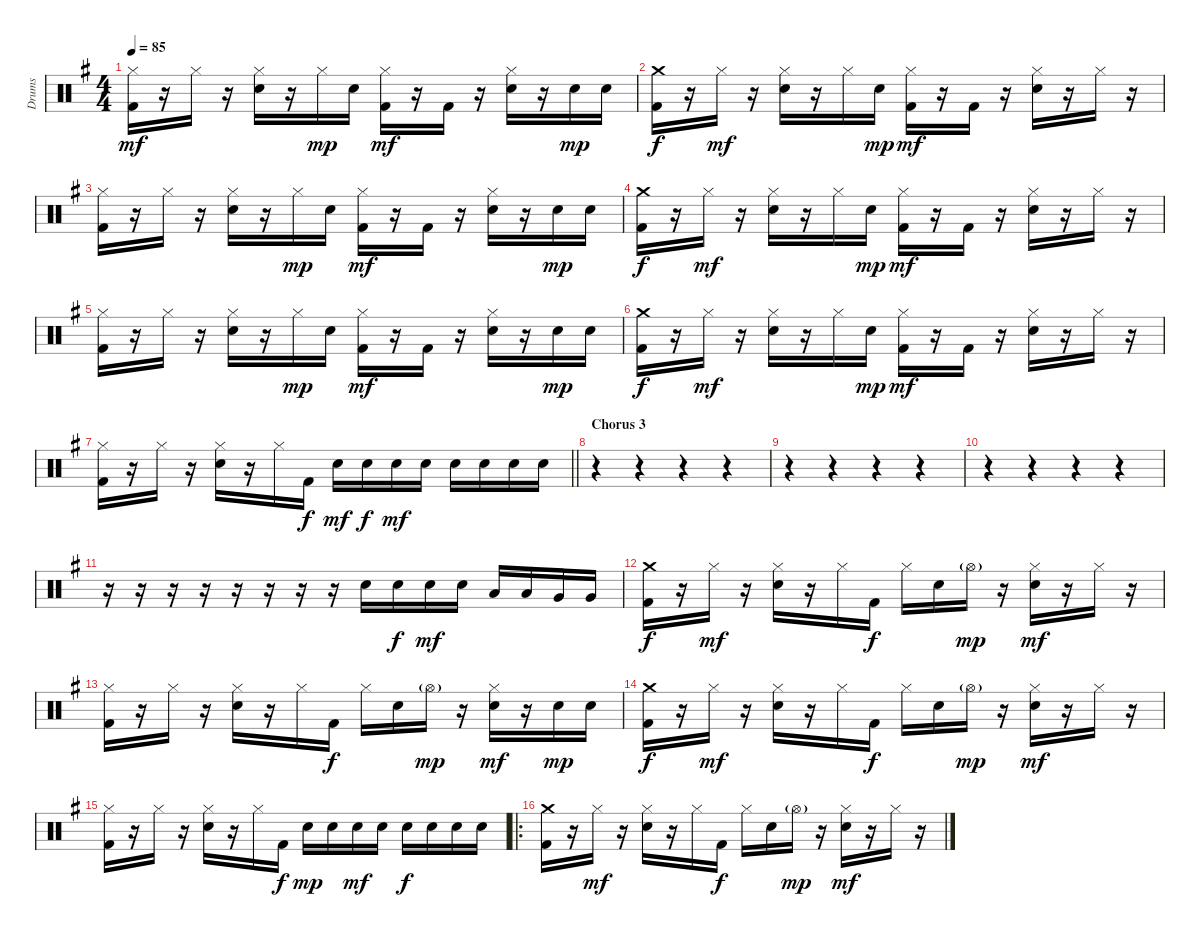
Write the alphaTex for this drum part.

\track ("Drums" "Drums") {instrument percussion}
\staff {score}
\articulation defaults
\ts (4 4)
\tempo 85
\clef neutral
\ks g
("Hi-Hat (closed)" "Kick (hit) 2").16{dy mf} r.16 "Hi-Hat (closed)".16 r.16 ("Hi-Hat (closed)" "Snare (hit) 2").16 r.16 "Hi-Hat (closed)".16{dy mp} "Snare (hit) 2".16 ("Hi-Hat (closed)" "Kick (hit) 2").16{dy mf} r.16 "Kick (hit) 2".16 r.16 ("Hi-Hat (closed)" "Snare (hit) 2").16 r.16 "Snare (hit) 2".16{dy mp} "Snare (hit) 2".16 |
("Crash medium (hit)" "Kick (hit) 2").16{dy f} r.16 "Hi-Hat (closed)".16{dy mf} r.16 ("Hi-Hat (closed)" "Snare (hit) 2").16 r.16 "Hi-Hat (closed)".16 "Snare (hit) 2".16{dy mp} ("Hi-Hat (closed)" "Kick (hit) 2").16{dy mf} r.16 "Kick (hit) 2".16 r.16 ("Hi-Hat (closed)" "Snare (hit) 2").16 r.16 "Hi-Hat (closed)".16 r.16 |
("Hi-Hat (closed)" "Kick (hit) 2").16 r.16 "Hi-Hat (closed)".16 r.16 ("Hi-Hat (closed)" "Snare (hit) 2").16 r.16 "Hi-Hat (closed)".16{dy mp} "Snare (hit) 2".16 ("Hi-Hat (closed)" "Kick (hit) 2").16{dy mf} r.16 "Kick (hit) 2".16 r.16 ("Hi-Hat (closed)" "Snare (hit) 2").16 r.16 "Snare (hit) 2".16{dy mp} "Snare (hit) 2".16 |
("Crash medium (hit)" "Kick (hit) 2").16{dy f} r.16 "Hi-Hat (closed)".16{dy mf} r.16 ("Hi-Hat (closed)" "Snare (hit) 2").16 r.16 "Hi-Hat (closed)".16 "Snare (hit) 2".16{dy mp} ("Hi-Hat (closed)" "Kick (hit) 2").16{dy mf} r.16 "Kick (hit) 2".16 r.16 ("Hi-Hat (closed)" "Snare (hit) 2").16 r.16 "Hi-Hat (closed)".16 r.16 |
("Hi-Hat (closed)" "Kick (hit) 2").16 r.16 "Hi-Hat (closed)".16 r.16 ("Hi-Hat (closed)" "Snare (hit) 2").16 r.16 "Hi-Hat (closed)".16{dy mp} "Snare (hit) 2".16 ("Hi-Hat (closed)" "Kick (hit) 2").16{dy mf} r.16 "Kick (hit) 2".16 r.16 ("Hi-Hat (closed)" "Snare (hit) 2").16 r.16 "Snare (hit) 2".16{dy mp} "Snare (hit) 2".16 |
("Crash medium (hit)" "Kick (hit) 2").16{dy f} r.16 "Hi-Hat (closed)".16{dy mf} r.16 ("Hi-Hat (closed)" "Snare (hit) 2").16 r.16 "Hi-Hat (closed)".16 "Snare (hit) 2".16{dy mp} ("Hi-Hat (closed)" "Kick (hit) 2").16{dy mf} r.16 "Kick (hit) 2".16 r.16 ("Hi-Hat (closed)" "Snare (hit) 2").16 r.16 "Hi-Hat (closed)".16 r.16 |
\barLineRight lightlight
("Hi-Hat (closed)" "Kick (hit) 2").16 r.16 "Hi-Hat (closed)".16 r.16 ("Hi-Hat (closed)" "Snare (hit) 2").16 r.16 "Hi-Hat (closed)".16 "Kick (hit) 2".16{dy f} "Snare (hit) 2".16{dy mf} "Snare (hit) 2".16{dy f} "Snare (hit) 2".16{dy mf} "Snare (hit) 2".16 "Snare (hit) 2".16 "Snare (hit) 2".16 "Snare (hit) 2".16 "Snare (hit) 2".16 |
\section ("" "Chorus 3")
r.4 r.4 r.4 r.4 |
r.4 r.4 r.4 r.4 |
r.4 r.4 r.4 r.4 |
r.16 r.16 r.16 r.16 r.16 r.16 r.16 r.16 "Snare (hit) 2".16 "Snare (hit) 2".16{dy f} "Snare (hit) 2".16{dy mf} "Snare (hit) 2".16 "Low Tom (hit)".16 "Low Tom (hit)".16 "Very Low Tom (hit)".16 "Very Low Tom (hit)".16 |
("Crash medium (hit)" "Kick (hit) 2").16{dy f} r.16 "Hi-Hat (closed)".16{dy mf} r.16 ("Hi-Hat (closed)" "Snare (hit) 2").16 r.16 "Hi-Hat (closed)".16 "Kick (hit) 2".16{dy f} "Hi-Hat (closed)".16 "Snare (hit) 2".16 "Hi-Hat (open)"{g}.16{dy mp} r.16 ("Hi-Hat (closed)" "Snare (hit) 2").16{dy mf} r.16 "Hi-Hat (closed)".16 r.16 |
("Hi-Hat (closed)" "Kick (hit) 2").16 r.16 "Hi-Hat (closed)".16 r.16 ("Hi-Hat (closed)" "Snare (hit) 2").16 r.16 "Hi-Hat (closed)".16 "Kick (hit) 2".16{dy f} "Hi-Hat (closed)".16 "Snare (hit) 2".16 "Hi-Hat (open)"{g}.16{dy mp} r.16 ("Hi-Hat (closed)" "Snare (hit) 2").16{dy mf} r.16 "Snare (hit) 2".16{dy mp} "Snare (hit) 2".16 |
("Crash medium (hit)" "Kick (hit) 2").16{dy f} r.16 "Hi-Hat (closed)".16{dy mf} r.16 ("Hi-Hat (closed)" "Snare (hit) 2").16 r.16 "Hi-Hat (closed)".16 "Kick (hit) 2".16{dy f} "Hi-Hat (closed)".16 "Snare (hit) 2".16 "Hi-Hat (open)"{g}.16{dy mp} r.16 ("Hi-Hat (closed)" "Snare (hit) 2").16{dy mf} r.16 "Hi-Hat (closed)".16 r.16 |
("Hi-Hat (closed)" "Kick (hit) 2").16 r.16 "Hi-Hat (closed)".16 r.16 ("Hi-Hat (closed)" "Snare (hit) 2").16 r.16 "Hi-Hat (closed)".16 "Kick (hit) 2".16{dy f} "Snare (hit) 2".16{dy mp} "Snare (hit) 2".16 "Snare (hit) 2".16{dy mf} "Snare (hit) 2".16 "Snare (hit) 2".16{dy f} "Snare (hit) 2".16 "Snare (hit) 2".16 "Snare (hit) 2".16 |
\ro
("Crash medium (hit)" "Kick (hit) 2").16 r.16 "Hi-Hat (closed)".16{dy mf} r.16 ("Hi-Hat (closed)" "Snare (hit) 2").16 r.16 "Hi-Hat (closed)".16 "Kick (hit) 2".16{dy f} "Hi-Hat (closed)".16 "Snare (hit) 2".16 "Hi-Hat (open)"{g}.16{dy mp} r.16 ("Hi-Hat (closed)" "Snare (hit) 2").16{dy mf} r.16 "Hi-Hat (closed)".16 r.16
